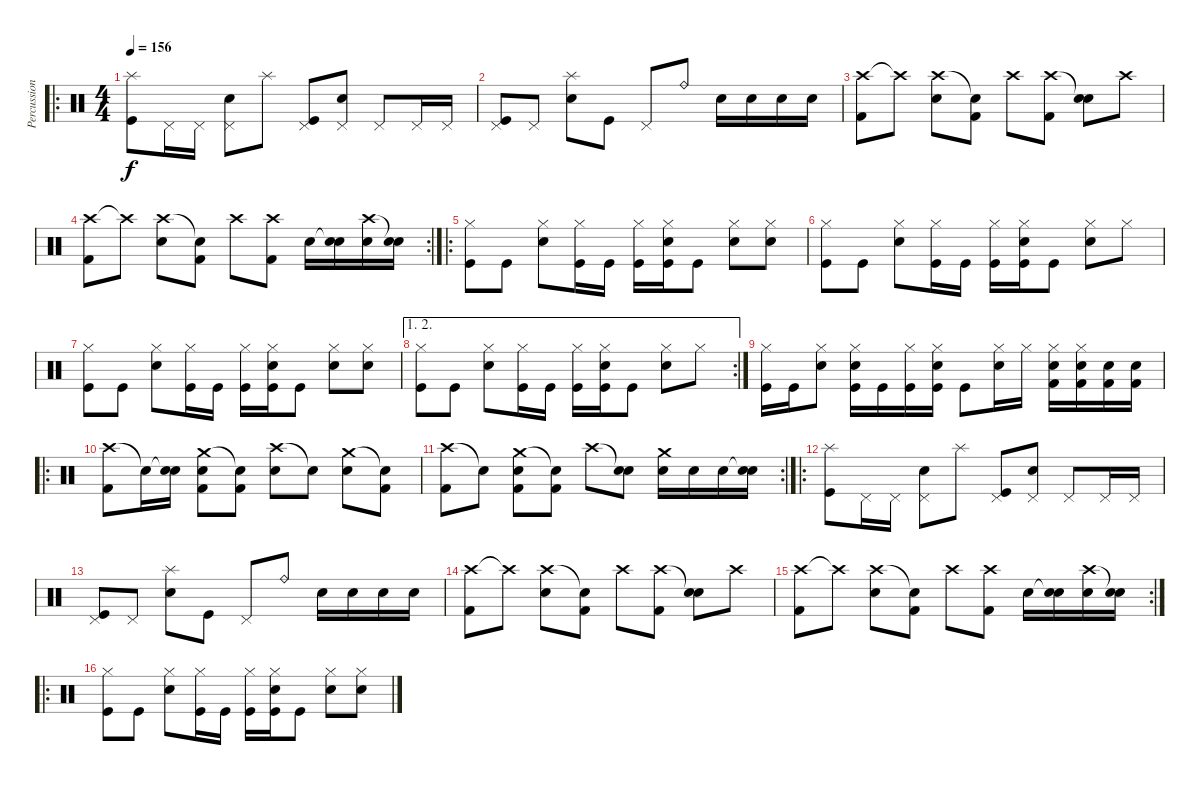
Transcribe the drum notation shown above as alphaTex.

\track ("Percussion" "Percussion") {instrument percussion}
\staff {score}
\articulation defaults
\ro
\ts (4 4)
\tempo 156
\clef neutral
\ks c
("Splash (hit)" "Kick (hit)").8{dy f} "Pedal Hi-Hat (hit)".16 "Pedal Hi-Hat (hit)".16 ("Pedal Hi-Hat (hit)" "Electric Snare (hit)").8 "Splash (hit)".8 ("Pedal Hi-Hat (hit)" "Kick (hit)").8 ("Pedal Hi-Hat (hit)" "Electric Snare (hit)").8 "Pedal Hi-Hat (hit)".8 "Pedal Hi-Hat (hit)".16 "Pedal Hi-Hat (hit)".16 |
("Pedal Hi-Hat (hit)" "Kick (hit)").8 "Pedal Hi-Hat (hit)".8 ("Splash (hit)" "Electric Snare (hit)").8 "Kick (hit)".8 "Pedal Hi-Hat (hit)".8 "Ride (bell)".8 "Electric Snare (hit)".16 "Electric Snare (hit)".16 "Electric Snare (hit)".16 "Electric Snare (hit)".16 |
("Crash high (hit)" "Kick (hit) 2").8 "Crash high (hit)"{t}.8 ("Crash high (hit)" "Electric Snare (hit)").8 ("Snare (hit)"{t} "Kick (hit) 2").8 "Crash high (hit)".8 ("Crash high (hit)" "Kick (hit) 2").8 ("Snare (hit)"{t} "Electric Snare (hit)").8 "Crash high (hit)".8 |
\rc 2
("Crash high (hit)" "Kick (hit) 2").8 "Crash high (hit)"{t}.8 ("Crash high (hit)" "Electric Snare (hit)").8 ("Snare (hit)"{t} "Kick (hit) 2").8 "Crash high (hit)".8 ("Crash high (hit)" "Kick (hit) 2").8 "Electric Snare (hit)".16 ("Snare (hit)"{t} "Electric Snare (hit)").16 ("Crash high (hit)" "Electric Snare (hit)").16 ("Snare (hit)"{t} "Electric Snare (hit)").16 |
\ro
("Hi-Hat (closed)" "Kick (hit)").8 "Kick (hit)".8 ("Hi-Hat (closed)" "Electric Snare (hit)").8 ("Hi-Hat (closed)" "Kick (hit)").16 "Kick (hit)".16 ("Hi-Hat (closed)" "Kick (hit)").16 ("Hi-Hat (closed)" "Electric Snare (hit)" "Kick (hit)").16 "Kick (hit)".8 ("Hi-Hat (closed)" "Electric Snare (hit)").8 ("Hi-Hat (closed)" "Electric Snare (hit)").8 |
("Hi-Hat (closed)" "Kick (hit)").8 "Kick (hit)".8 ("Hi-Hat (closed)" "Electric Snare (hit)").8 ("Hi-Hat (closed)" "Kick (hit)").16 "Kick (hit)".16 ("Hi-Hat (closed)" "Kick (hit)").16 ("Hi-Hat (closed)" "Electric Snare (hit)" "Kick (hit)").16 "Kick (hit)".8 ("Hi-Hat (closed)" "Electric Snare (hit)").8 "Hi-Hat (closed)".8 |
("Hi-Hat (closed)" "Kick (hit)").8 "Kick (hit)".8 ("Hi-Hat (closed)" "Electric Snare (hit)").8 ("Hi-Hat (closed)" "Kick (hit)").16 "Kick (hit)".16 ("Hi-Hat (closed)" "Kick (hit)").16 ("Hi-Hat (closed)" "Electric Snare (hit)" "Kick (hit)").16 "Kick (hit)".8 ("Hi-Hat (closed)" "Electric Snare (hit)").8 ("Hi-Hat (closed)" "Electric Snare (hit)").8 |
\ae (1 2)
\rc 2
("Hi-Hat (closed)" "Kick (hit)").8 "Kick (hit)".8 ("Hi-Hat (closed)" "Electric Snare (hit)").8 ("Hi-Hat (closed)" "Kick (hit)").16 "Kick (hit)".16 ("Hi-Hat (closed)" "Kick (hit)").16 ("Hi-Hat (closed)" "Electric Snare (hit)" "Kick (hit)").16 "Kick (hit)".8 ("Hi-Hat (closed)" "Electric Snare (hit)").8 "Hi-Hat (closed)".8 |
("Hi-Hat (closed)" "Kick (hit)").16 "Kick (hit)".16 ("Hi-Hat (closed)" "Electric Snare (hit)").8 ("Hi-Hat (closed)" "Electric Snare (hit)" "Kick (hit)").16 "Kick (hit)".16 ("Hi-Hat (closed)" "Kick (hit)").16 ("Hi-Hat (closed)" "Electric Snare (hit)" "Kick (hit)").16 "Kick (hit)".8 ("Hi-Hat (closed)" "Electric Snare (hit)").16 "Hi-Hat (closed)".16 ("Hi-Hat (closed)" "Electric Snare (hit)" "Kick (hit) 2").16 ("Hi-Hat (closed)" "Electric Snare (hit)" "Kick (hit) 2").16 ("Electric Snare (hit)" "Kick (hit) 2").16 ("Electric Snare (hit)" "Kick (hit) 2").16 |
\ro
("Crash high (hit)" "Kick (hit) 2").8 "Snare (hit)"{t}.16 ("Snare (hit)"{t} "Electric Snare (hit)").16 ("Crash medium (hit)" "Electric Snare (hit)" "Kick (hit) 2").8 ("Snare (hit)"{t} "Kick (hit) 2").8 ("Crash high (hit)" "Electric Snare (hit)").8 "Snare (hit)"{t}.8 ("Crash medium (hit)" "Electric Snare (hit)").8 ("Snare (hit)"{t} "Kick (hit) 2").8 |
\rc 2
("Crash high (hit)" "Kick (hit) 2").8 "Snare (hit)"{t}.8 ("Crash medium (hit)" "Electric Snare (hit)" "Kick (hit) 2").8 ("Snare (hit)"{t} "Kick (hit) 2").8 "Crash high (hit)".8 ("Snare (hit)"{t} "Electric Snare (hit)").8 ("Crash medium (hit)" "Electric Snare (hit)").16 "Electric Snare (hit)".16 "Electric Snare (hit)".16 ("Snare (hit)"{t} "Electric Snare (hit)").16 |
\ro
("Splash (hit)" "Kick (hit)").8 "Pedal Hi-Hat (hit)".16 "Pedal Hi-Hat (hit)".16 ("Pedal Hi-Hat (hit)" "Electric Snare (hit)").8 "Splash (hit)".8 ("Pedal Hi-Hat (hit)" "Kick (hit)").8 ("Pedal Hi-Hat (hit)" "Electric Snare (hit)").8 "Pedal Hi-Hat (hit)".8 "Pedal Hi-Hat (hit)".16 "Pedal Hi-Hat (hit)".16 |
("Pedal Hi-Hat (hit)" "Kick (hit)").8 "Pedal Hi-Hat (hit)".8 ("Splash (hit)" "Electric Snare (hit)").8 "Kick (hit)".8 "Pedal Hi-Hat (hit)".8 "Ride (bell)".8 "Electric Snare (hit)".16 "Electric Snare (hit)".16 "Electric Snare (hit)".16 "Electric Snare (hit)".16 |
("Crash high (hit)" "Kick (hit) 2").8 "Crash high (hit)"{t}.8 ("Crash high (hit)" "Electric Snare (hit)").8 ("Snare (hit)"{t} "Kick (hit) 2").8 "Crash high (hit)".8 ("Crash high (hit)" "Kick (hit) 2").8 ("Snare (hit)"{t} "Electric Snare (hit)").8 "Crash high (hit)".8 |
\rc 2
("Crash high (hit)" "Kick (hit) 2").8 "Crash high (hit)"{t}.8 ("Crash high (hit)" "Electric Snare (hit)").8 ("Snare (hit)"{t} "Kick (hit) 2").8 "Crash high (hit)".8 ("Crash high (hit)" "Kick (hit) 2").8 "Electric Snare (hit)".16 ("Snare (hit)"{t} "Electric Snare (hit)").16 ("Crash high (hit)" "Electric Snare (hit)").16 ("Snare (hit)"{t} "Electric Snare (hit)").16 |
\ro
("Hi-Hat (closed)" "Kick (hit)").8 "Kick (hit)".8 ("Hi-Hat (closed)" "Electric Snare (hit)").8 ("Hi-Hat (closed)" "Kick (hit)").16 "Kick (hit)".16 ("Hi-Hat (closed)" "Kick (hit)").16 ("Hi-Hat (closed)" "Electric Snare (hit)" "Kick (hit)").16 "Kick (hit)".8 ("Hi-Hat (closed)" "Electric Snare (hit)").8 ("Hi-Hat (closed)" "Electric Snare (hit)").8
